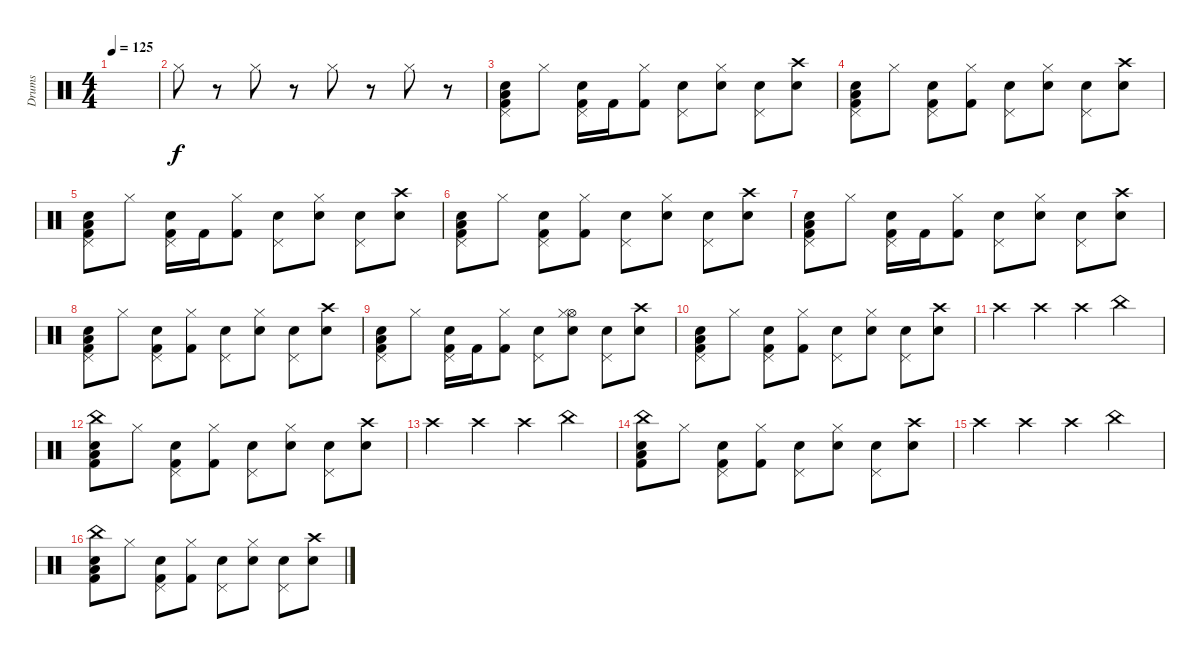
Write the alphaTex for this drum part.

\track ("Drums" "Drums") {instrument percussion}
\staff {score}
\articulation defaults
\ts (4 4)
\tempo 125
\clef neutral
\ks c
|
"Hi-Hat (closed)".8 r.8 "Hi-Hat (closed)".8 r.8 "Hi-Hat (closed)".8 r.8 "Hi-Hat (closed)".8 r.8 |
("Kick (hit) 2" "Snare (hit) 2" "Low Floor Tom (hit)" "Pedal Hi-Hat (hit)").8 "Hi-Hat (closed)".8 ("Snare (hit) 2" "Kick (hit) 2" "Pedal Hi-Hat (hit)").16 "Kick (hit) 2".16 ("Kick (hit) 2" "Hi-Hat (closed)").8 ("Snare (hit) 2" "Pedal Hi-Hat (hit)").8 ("Snare (hit) 2" "Hi-Hat (closed)").8 ("Snare (hit) 2" "Pedal Hi-Hat (hit)").8 ("Snare (hit) 2" "Crash high (hit)").8 |
("Kick (hit) 2" "Snare (hit) 2" "Low Floor Tom (hit)" "Pedal Hi-Hat (hit)").8 "Hi-Hat (closed)".8 ("Snare (hit) 2" "Kick (hit) 2" "Pedal Hi-Hat (hit)").8 ("Kick (hit) 2" "Hi-Hat (closed)").8 ("Snare (hit) 2" "Pedal Hi-Hat (hit)").8 ("Snare (hit) 2" "Hi-Hat (closed)").8 ("Snare (hit) 2" "Pedal Hi-Hat (hit)").8 ("Snare (hit) 2" "Crash high (hit)").8 |
("Kick (hit) 2" "Snare (hit) 2" "Low Floor Tom (hit)" "Pedal Hi-Hat (hit)").8 "Hi-Hat (closed)".8 ("Snare (hit) 2" "Kick (hit) 2" "Pedal Hi-Hat (hit)").16 "Kick (hit) 2".16 ("Kick (hit) 2" "Hi-Hat (closed)").8 ("Snare (hit) 2" "Pedal Hi-Hat (hit)").8 ("Snare (hit) 2" "Hi-Hat (closed)").8 ("Snare (hit) 2" "Pedal Hi-Hat (hit)").8 ("Snare (hit) 2" "Crash high (hit)").8 |
("Kick (hit) 2" "Snare (hit) 2" "Low Floor Tom (hit)" "Pedal Hi-Hat (hit)").8 "Hi-Hat (closed)".8 ("Snare (hit) 2" "Kick (hit) 2" "Pedal Hi-Hat (hit)").8 ("Kick (hit) 2" "Hi-Hat (closed)").8 ("Snare (hit) 2" "Pedal Hi-Hat (hit)").8 ("Snare (hit) 2" "Hi-Hat (closed)").8 ("Snare (hit) 2" "Pedal Hi-Hat (hit)").8 ("Snare (hit) 2" "Crash high (hit)").8 |
("Kick (hit) 2" "Snare (hit) 2" "Low Floor Tom (hit)" "Pedal Hi-Hat (hit)").8 "Hi-Hat (closed)".8 ("Snare (hit) 2" "Kick (hit) 2" "Pedal Hi-Hat (hit)").16 "Kick (hit) 2".16 ("Kick (hit) 2" "Hi-Hat (closed)").8 ("Snare (hit) 2" "Pedal Hi-Hat (hit)").8 ("Snare (hit) 2" "Hi-Hat (closed)").8 ("Snare (hit) 2" "Pedal Hi-Hat (hit)").8 ("Snare (hit) 2" "Crash high (hit)").8 |
("Kick (hit) 2" "Snare (hit) 2" "Low Floor Tom (hit)" "Pedal Hi-Hat (hit)").8 "Hi-Hat (closed)".8 ("Snare (hit) 2" "Kick (hit) 2" "Pedal Hi-Hat (hit)").8 ("Kick (hit) 2" "Hi-Hat (closed)").8 ("Snare (hit) 2" "Pedal Hi-Hat (hit)").8 ("Snare (hit) 2" "Hi-Hat (closed)").8 ("Snare (hit) 2" "Pedal Hi-Hat (hit)").8 ("Snare (hit) 2" "Crash high (hit)").8 |
("Kick (hit) 2" "Snare (hit) 2" "Low Floor Tom (hit)" "Pedal Hi-Hat (hit)").8 "Hi-Hat (closed)".8 ("Snare (hit) 2" "Kick (hit) 2" "Pedal Hi-Hat (hit)").16 "Kick (hit) 2".16 ("Kick (hit) 2" "Hi-Hat (closed)").8 ("Snare (hit) 2" "Pedal Hi-Hat (hit)").8 ("Hi-Hat (open)" "Snare (hit) 2" "Hi-Hat (closed)").8 ("Snare (hit) 2" "Pedal Hi-Hat (hit)").8 ("Snare (hit) 2" "Crash high (hit)").8 |
("Kick (hit) 2" "Snare (hit) 2" "Low Floor Tom (hit)" "Pedal Hi-Hat (hit)").8 "Hi-Hat (closed)".8 ("Snare (hit) 2" "Kick (hit) 2" "Pedal Hi-Hat (hit)").8 ("Kick (hit) 2" "Hi-Hat (closed)").8 ("Snare (hit) 2" "Pedal Hi-Hat (hit)").8 ("Snare (hit) 2" "Hi-Hat (closed)").8 ("Snare (hit) 2" "Pedal Hi-Hat (hit)").8 ("Snare (hit) 2" "Crash high (hit)").8 |
"Crash high (hit)".4 "Crash high (hit)".4 "Crash high (hit)".4 "China (hit)".4 |
("Kick (hit) 2" "Snare (hit) 2" "Low Floor Tom (hit)" "China (hit)").8 "Hi-Hat (closed)".8 ("Snare (hit) 2" "Kick (hit) 2" "Pedal Hi-Hat (hit)").8 ("Kick (hit) 2" "Hi-Hat (closed)").8 ("Snare (hit) 2" "Pedal Hi-Hat (hit)").8 ("Snare (hit) 2" "Hi-Hat (closed)").8 ("Snare (hit) 2" "Pedal Hi-Hat (hit)").8 ("Snare (hit) 2" "Crash high (hit)").8 |
"Crash high (hit)".4 "Crash high (hit)".4 "Crash high (hit)".4 "China (hit)".4 |
("Kick (hit) 2" "Snare (hit) 2" "Low Floor Tom (hit)" "China (hit)").8 "Hi-Hat (closed)".8 ("Snare (hit) 2" "Kick (hit) 2" "Pedal Hi-Hat (hit)").8 ("Kick (hit) 2" "Hi-Hat (closed)").8 ("Snare (hit) 2" "Pedal Hi-Hat (hit)").8 ("Snare (hit) 2" "Hi-Hat (closed)").8 ("Snare (hit) 2" "Pedal Hi-Hat (hit)").8 ("Snare (hit) 2" "Crash high (hit)").8 |
"Crash high (hit)".4 "Crash high (hit)".4 "Crash high (hit)".4 "China (hit)".4 |
("Kick (hit) 2" "Snare (hit) 2" "Low Floor Tom (hit)" "China (hit)").8 "Hi-Hat (closed)".8 ("Snare (hit) 2" "Kick (hit) 2" "Pedal Hi-Hat (hit)").8 ("Kick (hit) 2" "Hi-Hat (closed)").8 ("Snare (hit) 2" "Pedal Hi-Hat (hit)").8 ("Snare (hit) 2" "Hi-Hat (closed)").8 ("Snare (hit) 2" "Pedal Hi-Hat (hit)").8 ("Snare (hit) 2" "Crash high (hit)").8
